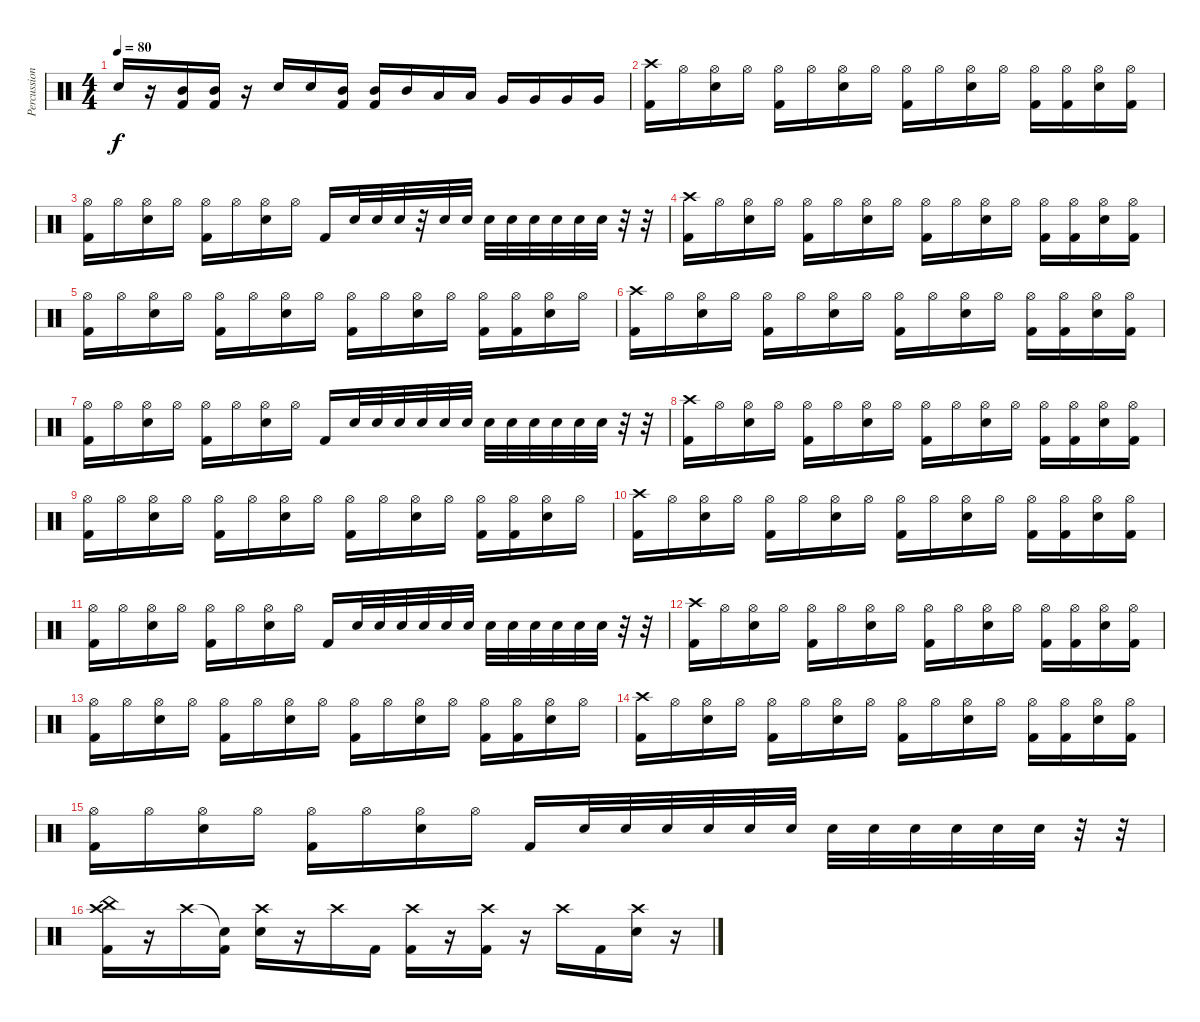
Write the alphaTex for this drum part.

\track ("Percussion" "Percussion") {instrument percussion}
\staff {score}
\articulation defaults
\ts (4 4)
\tempo 80
\clef neutral
\ks c "Electric Snare (hit)".16{dy f}
r.16 ("Mid Tom (hit)" "Kick (hit) 2").16 ("Mid Tom (hit)" "Kick (hit) 2").16 r.16 "Electric Snare (hit)".16 "Electric Snare (hit)".16 ("Mid Tom (hit)" "Kick (hit) 2").16 ("Mid Tom (hit)" "Kick (hit) 2").16 "Mid Tom (hit)".16 "Low Tom (hit)".16 "Low Tom (hit)".16 "Very Low Tom (hit)".16 "Very Low Tom (hit)".16 "Very Low Tom (hit)".16 "Very Low Tom (hit)".16 |
("Crash high (hit)" "Kick (hit) 2").16 "Hi-Hat (open)".16 ("Hi-Hat (open)" "Electric Snare (hit)").16 "Hi-Hat (open)".16 ("Hi-Hat (open)" "Kick (hit) 2").16 "Hi-Hat (open)".16 ("Hi-Hat (open)" "Electric Snare (hit)").16 "Hi-Hat (open)".16 ("Hi-Hat (open)" "Kick (hit) 2").16 "Hi-Hat (open)".16 ("Hi-Hat (open)" "Electric Snare (hit)").16 "Hi-Hat (open)".16 ("Hi-Hat (open)" "Kick (hit) 2").16 ("Hi-Hat (open)" "Kick (hit) 2").16 ("Hi-Hat (open)" "Electric Snare (hit)").16 ("Hi-Hat (open)" "Kick (hit) 2").16 |
("Hi-Hat (open)" "Kick (hit) 2").16 "Hi-Hat (open)".16 ("Hi-Hat (open)" "Electric Snare (hit)").16 "Hi-Hat (open)".16 ("Hi-Hat (open)" "Kick (hit) 2").16 "Hi-Hat (open)".16 ("Hi-Hat (open)" "Electric Snare (hit)").16 "Hi-Hat (open)".16 "Kick (hit) 2".16 "Electric Snare (hit)".32 "Electric Snare (hit)".32 "Electric Snare (hit)".32 r.32 "Electric Snare (hit)".32 "Electric Snare (hit)".32 "Electric Snare (hit)".32 "Electric Snare (hit)".32 "Electric Snare (hit)".32 "Electric Snare (hit)".32 "Electric Snare (hit)".32 "Electric Snare (hit)".32 r.32 r.32 |
("Crash high (hit)" "Kick (hit) 2").16 "Hi-Hat (open)".16 ("Hi-Hat (open)" "Electric Snare (hit)").16 "Hi-Hat (open)".16 ("Hi-Hat (open)" "Kick (hit) 2").16 "Hi-Hat (open)".16 ("Hi-Hat (open)" "Electric Snare (hit)").16 "Hi-Hat (open)".16 ("Hi-Hat (open)" "Kick (hit) 2").16 "Hi-Hat (open)".16 ("Hi-Hat (open)" "Electric Snare (hit)").16 "Hi-Hat (open)".16 ("Hi-Hat (open)" "Kick (hit) 2").16 ("Hi-Hat (open)" "Kick (hit) 2").16 ("Hi-Hat (open)" "Electric Snare (hit)").16 ("Hi-Hat (open)" "Kick (hit) 2").16 |
("Hi-Hat (open)" "Kick (hit) 2").16 "Hi-Hat (open)".16 ("Hi-Hat (open)" "Electric Snare (hit)").16 "Hi-Hat (open)".16 ("Hi-Hat (open)" "Kick (hit) 2").16 "Hi-Hat (open)".16 ("Hi-Hat (open)" "Electric Snare (hit)").16 "Hi-Hat (open)".16 ("Hi-Hat (open)" "Kick (hit) 2").16 "Hi-Hat (open)".16 ("Hi-Hat (open)" "Electric Snare (hit)").16 "Hi-Hat (open)".16 ("Hi-Hat (open)" "Kick (hit) 2").16 ("Hi-Hat (open)" "Kick (hit) 2").16 ("Hi-Hat (open)" "Electric Snare (hit)").16 "Hi-Hat (open)".16 |
("Crash high (hit)" "Kick (hit) 2").16 "Hi-Hat (open)".16 ("Hi-Hat (open)" "Electric Snare (hit)").16 "Hi-Hat (open)".16 ("Hi-Hat (open)" "Kick (hit) 2").16 "Hi-Hat (open)".16 ("Hi-Hat (open)" "Electric Snare (hit)").16 "Hi-Hat (open)".16 ("Hi-Hat (open)" "Kick (hit) 2").16 "Hi-Hat (open)".16 ("Hi-Hat (open)" "Electric Snare (hit)").16 "Hi-Hat (open)".16 ("Hi-Hat (open)" "Kick (hit) 2").16 ("Hi-Hat (open)" "Kick (hit) 2").16 ("Hi-Hat (open)" "Electric Snare (hit)").16 ("Hi-Hat (open)" "Kick (hit) 2").16 |
("Hi-Hat (open)" "Kick (hit) 2").16 "Hi-Hat (open)".16 ("Hi-Hat (open)" "Electric Snare (hit)").16 "Hi-Hat (open)".16 ("Hi-Hat (open)" "Kick (hit) 2").16 "Hi-Hat (open)".16 ("Hi-Hat (open)" "Electric Snare (hit)").16 "Hi-Hat (open)".16 "Kick (hit) 2".16 "Electric Snare (hit)".32 "Electric Snare (hit)".32 "Electric Snare (hit)".32 "Electric Snare (hit)".32 "Electric Snare (hit)".32 "Electric Snare (hit)".32 "Electric Snare (hit)".32 "Electric Snare (hit)".32 "Electric Snare (hit)".32 "Electric Snare (hit)".32 "Electric Snare (hit)".32 "Electric Snare (hit)".32 r.32 r.32 |
("Crash high (hit)" "Kick (hit) 2").16 "Hi-Hat (open)".16 ("Hi-Hat (open)" "Electric Snare (hit)").16 "Hi-Hat (open)".16 ("Hi-Hat (open)" "Kick (hit) 2").16 "Hi-Hat (open)".16 ("Hi-Hat (open)" "Electric Snare (hit)").16 "Hi-Hat (open)".16 ("Hi-Hat (open)" "Kick (hit) 2").16 "Hi-Hat (open)".16 ("Hi-Hat (open)" "Electric Snare (hit)").16 "Hi-Hat (open)".16 ("Hi-Hat (open)" "Kick (hit) 2").16 ("Hi-Hat (open)" "Kick (hit) 2").16 ("Hi-Hat (open)" "Electric Snare (hit)").16 ("Hi-Hat (open)" "Kick (hit) 2").16 |
("Hi-Hat (open)" "Kick (hit) 2").16 "Hi-Hat (open)".16 ("Hi-Hat (open)" "Electric Snare (hit)").16 "Hi-Hat (open)".16 ("Hi-Hat (open)" "Kick (hit) 2").16 "Hi-Hat (open)".16 ("Hi-Hat (open)" "Electric Snare (hit)").16 "Hi-Hat (open)".16 ("Hi-Hat (open)" "Kick (hit) 2").16 "Hi-Hat (open)".16 ("Hi-Hat (open)" "Electric Snare (hit)").16 "Hi-Hat (open)".16 ("Hi-Hat (open)" "Kick (hit) 2").16 ("Hi-Hat (open)" "Kick (hit) 2").16 ("Hi-Hat (open)" "Electric Snare (hit)").16 "Hi-Hat (open)".16 |
("Crash high (hit)" "Kick (hit) 2").16 "Hi-Hat (open)".16 ("Hi-Hat (open)" "Electric Snare (hit)").16 "Hi-Hat (open)".16 ("Hi-Hat (open)" "Kick (hit) 2").16 "Hi-Hat (open)".16 ("Hi-Hat (open)" "Electric Snare (hit)").16 "Hi-Hat (open)".16 ("Hi-Hat (open)" "Kick (hit) 2").16 "Hi-Hat (open)".16 ("Hi-Hat (open)" "Electric Snare (hit)").16 "Hi-Hat (open)".16 ("Hi-Hat (open)" "Kick (hit) 2").16 ("Hi-Hat (open)" "Kick (hit) 2").16 ("Hi-Hat (open)" "Electric Snare (hit)").16 ("Hi-Hat (open)" "Kick (hit) 2").16 |
("Hi-Hat (open)" "Kick (hit) 2").16 "Hi-Hat (open)".16 ("Hi-Hat (open)" "Electric Snare (hit)").16 "Hi-Hat (open)".16 ("Hi-Hat (open)" "Kick (hit) 2").16 "Hi-Hat (open)".16 ("Hi-Hat (open)" "Electric Snare (hit)").16 "Hi-Hat (open)".16 "Kick (hit) 2".16 "Electric Snare (hit)".32 "Electric Snare (hit)".32 "Electric Snare (hit)".32 "Electric Snare (hit)".32 "Electric Snare (hit)".32 "Electric Snare (hit)".32 "Electric Snare (hit)".32 "Electric Snare (hit)".32 "Electric Snare (hit)".32 "Electric Snare (hit)".32 "Electric Snare (hit)".32 "Electric Snare (hit)".32 r.32 r.32 |
("Crash high (hit)" "Kick (hit) 2").16 "Hi-Hat (open)".16 ("Hi-Hat (open)" "Electric Snare (hit)").16 "Hi-Hat (open)".16 ("Hi-Hat (open)" "Kick (hit) 2").16 "Hi-Hat (open)".16 ("Hi-Hat (open)" "Electric Snare (hit)").16 "Hi-Hat (open)".16 ("Hi-Hat (open)" "Kick (hit) 2").16 "Hi-Hat (open)".16 ("Hi-Hat (open)" "Electric Snare (hit)").16 "Hi-Hat (open)".16 ("Hi-Hat (open)" "Kick (hit) 2").16 ("Hi-Hat (open)" "Kick (hit) 2").16 ("Hi-Hat (open)" "Electric Snare (hit)").16 ("Hi-Hat (open)" "Kick (hit) 2").16 |
("Hi-Hat (open)" "Kick (hit) 2").16 "Hi-Hat (open)".16 ("Hi-Hat (open)" "Electric Snare (hit)").16 "Hi-Hat (open)".16 ("Hi-Hat (open)" "Kick (hit) 2").16 "Hi-Hat (open)".16 ("Hi-Hat (open)" "Electric Snare (hit)").16 "Hi-Hat (open)".16 ("Hi-Hat (open)" "Kick (hit) 2").16 "Hi-Hat (open)".16 ("Hi-Hat (open)" "Electric Snare (hit)").16 "Hi-Hat (open)".16 ("Hi-Hat (open)" "Kick (hit) 2").16 ("Hi-Hat (open)" "Kick (hit) 2").16 ("Hi-Hat (open)" "Electric Snare (hit)").16 "Hi-Hat (open)".16 |
("Crash high (hit)" "Kick (hit) 2").16 "Hi-Hat (open)".16 ("Hi-Hat (open)" "Electric Snare (hit)").16 "Hi-Hat (open)".16 ("Hi-Hat (open)" "Kick (hit) 2").16 "Hi-Hat (open)".16 ("Hi-Hat (open)" "Electric Snare (hit)").16 "Hi-Hat (open)".16 ("Hi-Hat (open)" "Kick (hit) 2").16 "Hi-Hat (open)".16 ("Hi-Hat (open)" "Electric Snare (hit)").16 "Hi-Hat (open)".16 ("Hi-Hat (open)" "Kick (hit) 2").16 ("Hi-Hat (open)" "Kick (hit) 2").16 ("Hi-Hat (open)" "Electric Snare (hit)").16 ("Hi-Hat (open)" "Kick (hit) 2").16 |
("Hi-Hat (open)" "Kick (hit) 2").16 "Hi-Hat (open)".16 ("Hi-Hat (open)" "Electric Snare (hit)").16 "Hi-Hat (open)".16 ("Hi-Hat (open)" "Kick (hit) 2").16 "Hi-Hat (open)".16 ("Hi-Hat (open)" "Electric Snare (hit)").16 "Hi-Hat (open)".16 "Kick (hit) 2".16 "Electric Snare (hit)".32 "Electric Snare (hit)".32 "Electric Snare (hit)".32 "Electric Snare (hit)".32 "Electric Snare (hit)".32 "Electric Snare (hit)".32 "Electric Snare (hit)".32 "Electric Snare (hit)".32 "Electric Snare (hit)".32 "Electric Snare (hit)".32 "Electric Snare (hit)".32 "Electric Snare (hit)".32 r.32 r.32 |
("China (hit)" "Crash high (hit)" "Kick (hit) 2").16 r.16 "Crash high (hit)".16 ("Snare (hit)"{t} "Kick (hit) 2").16 ("Crash high (hit)" "Electric Snare (hit)").16 r.16 "Crash high (hit)".16 "Kick (hit) 2".16 ("Crash high (hit)" "Kick (hit) 2").16 r.16 ("Crash high (hit)" "Kick (hit) 2").16 r.16 "Crash high (hit)".16 "Kick (hit) 2".16 ("Crash high (hit)" "Electric Snare (hit)").16 r.16
